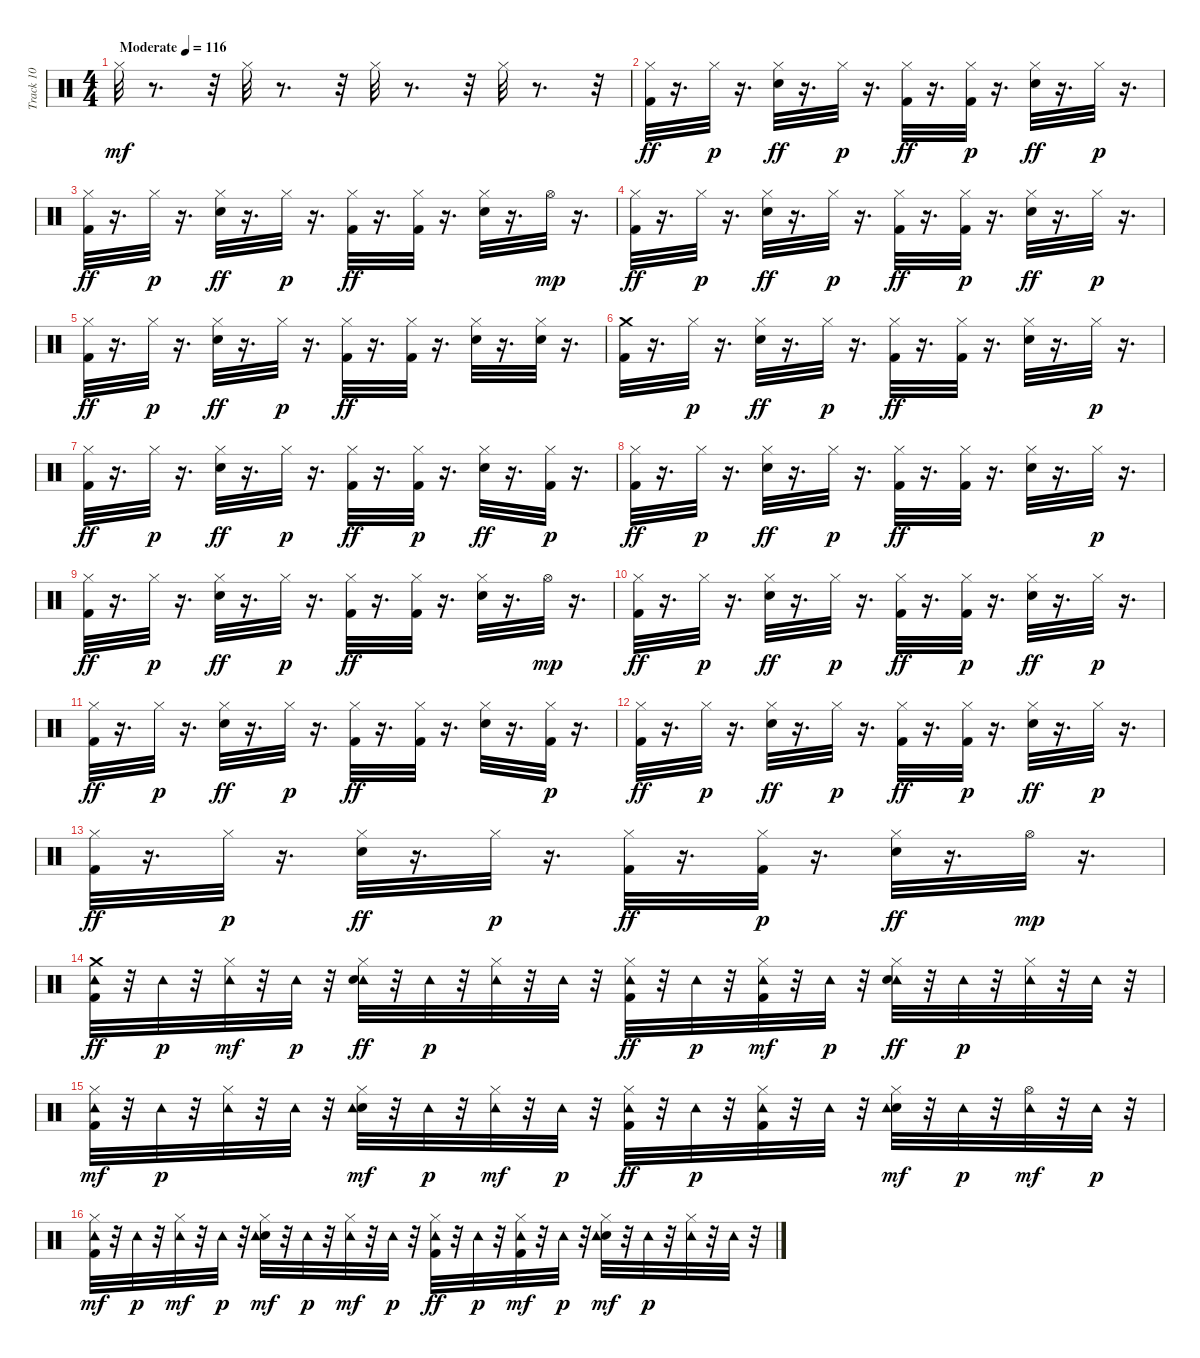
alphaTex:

\track ("Track 10" "Track 10") {instrument percussion}
\staff {score}
\articulation defaults
\ts (4 4)
\tempo (116 "Moderate")
\clef neutral
\ks c "Hi-Hat (closed)".32{dy mf}
r.8{d} r.32 "Hi-Hat (closed)".32 r.8{d} r.32 "Hi-Hat (closed)".32 r.8{d} r.32 "Hi-Hat (closed)".32 r.8{d} r.32 |
("Hi-Hat (closed)" "Kick (hit) 2").32{dy ff} r.16{d} "Hi-Hat (closed)".32{dy p} r.16{d} ("Snare (hit) 2" "Hi-Hat (closed)").32{dy ff} r.16{d} "Hi-Hat (closed)".32{dy p} r.16{d} ("Kick (hit) 2" "Hi-Hat (closed)").32{dy ff} r.16{d} ("Kick (hit) 2" "Hi-Hat (closed)").32{dy p} r.16{d} ("Hi-Hat (closed)" "Snare (hit) 2").32{dy ff} r.16{d} "Hi-Hat (closed)".32{dy p} r.16{d} |
("Hi-Hat (closed)" "Kick (hit) 2").32{dy ff} r.16{d} "Hi-Hat (closed)".32{dy p} r.16{d} ("Snare (hit) 2" "Hi-Hat (closed)").32{dy ff} r.16{d} "Hi-Hat (closed)".32{dy p} r.16{d} ("Hi-Hat (closed)" "Kick (hit) 2").32{dy ff} r.16{d} ("Hi-Hat (closed)" "Kick (hit) 2").32 r.16{d} ("Hi-Hat (closed)" "Snare (hit) 2").32 r.16{d} "Hi-Hat (open)".32{dy mp} r.16{d} |
("Hi-Hat (closed)" "Kick (hit) 2").32{dy ff} r.16{d} "Hi-Hat (closed)".32{dy p} r.16{d} ("Snare (hit) 2" "Hi-Hat (closed)").32{dy ff} r.16{d} "Hi-Hat (closed)".32{dy p} r.16{d} ("Kick (hit) 2" "Hi-Hat (closed)").32{dy ff} r.16{d} ("Kick (hit) 2" "Hi-Hat (closed)").32{dy p} r.16{d} ("Hi-Hat (closed)" "Snare (hit) 2").32{dy ff} r.16{d} "Hi-Hat (closed)".32{dy p} r.16{d} |
("Hi-Hat (closed)" "Kick (hit) 2").32{dy ff} r.16{d} "Hi-Hat (closed)".32{dy p} r.16{d} ("Snare (hit) 2" "Hi-Hat (closed)").32{dy ff} r.16{d} "Hi-Hat (closed)".32{dy p} r.16{d} ("Hi-Hat (closed)" "Kick (hit) 2").32{dy ff} r.16{d} ("Hi-Hat (closed)" "Kick (hit) 2").32 r.16{d} ("Hi-Hat (closed)" "Snare (hit) 2").32 r.16{d} ("Hi-Hat (closed)" "Snare (hit) 2").32 r.16{d} |
("Crash medium (hit)" "Kick (hit) 2").32 r.16{d} "Hi-Hat (closed)".32{dy p} r.16{d} ("Hi-Hat (closed)" "Snare (hit) 2").32{dy ff} r.16{d} "Hi-Hat (closed)".32{dy p} r.16{d} ("Kick (hit) 2" "Hi-Hat (closed)").32{dy ff} r.16{d} ("Hi-Hat (closed)" "Kick (hit) 2").32 r.16{d} ("Hi-Hat (closed)" "Snare (hit) 2").32 r.16{d} "Hi-Hat (closed)".32{dy p} r.16{d} |
("Hi-Hat (closed)" "Kick (hit) 2").32{dy ff} r.16{d} "Hi-Hat (closed)".32{dy p} r.16{d} ("Snare (hit) 2" "Hi-Hat (closed)").32{dy ff} r.16{d} "Hi-Hat (closed)".32{dy p} r.16{d} ("Hi-Hat (closed)" "Kick (hit) 2").32{dy ff} r.16{d} ("Kick (hit) 2" "Hi-Hat (closed)").32{dy p} r.16{d} ("Snare (hit) 2" "Hi-Hat (closed)").32{dy ff} r.16{d} ("Kick (hit) 2" "Hi-Hat (closed)").32{dy p} r.16{d} |
("Hi-Hat (closed)" "Kick (hit) 2").32{dy ff} r.16{d} "Hi-Hat (closed)".32{dy p} r.16{d} ("Hi-Hat (closed)" "Snare (hit) 2").32{dy ff} r.16{d} "Hi-Hat (closed)".32{dy p} r.16{d} ("Kick (hit) 2" "Hi-Hat (closed)").32{dy ff} r.16{d} ("Hi-Hat (closed)" "Kick (hit) 2").32 r.16{d} ("Hi-Hat (closed)" "Snare (hit) 2").32 r.16{d} "Hi-Hat (closed)".32{dy p} r.16{d} |
("Kick (hit) 2" "Hi-Hat (closed)").32{dy ff} r.16{d} "Hi-Hat (closed)".32{dy p} r.16{d} ("Hi-Hat (closed)" "Snare (hit) 2").32{dy ff} r.16{d} "Hi-Hat (closed)".32{dy p} r.16{d} ("Kick (hit) 2" "Hi-Hat (closed)").32{dy ff} r.16{d} ("Hi-Hat (closed)" "Kick (hit) 2").32 r.16{d} ("Snare (hit) 2" "Hi-Hat (closed)").32 r.16{d} "Hi-Hat (open)".32{dy mp} r.16{d} |
("Kick (hit) 2" "Hi-Hat (closed)").32{dy ff} r.16{d} "Hi-Hat (closed)".32{dy p} r.16{d} ("Hi-Hat (closed)" "Snare (hit) 2").32{dy ff} r.16{d} "Hi-Hat (closed)".32{dy p} r.16{d} ("Hi-Hat (closed)" "Kick (hit) 2").32{dy ff} r.16{d} ("Kick (hit) 2" "Hi-Hat (closed)").32{dy p} r.16{d} ("Hi-Hat (closed)" "Snare (hit) 2").32{dy ff} r.16{d} "Hi-Hat (closed)".32{dy p} r.16{d} |
("Hi-Hat (closed)" "Kick (hit) 2").32{dy ff} r.16{d} "Hi-Hat (closed)".32{dy p} r.16{d} ("Hi-Hat (closed)" "Snare (hit) 2").32{dy ff} r.16{d} "Hi-Hat (closed)".32{dy p} r.16{d} ("Kick (hit) 2" "Hi-Hat (closed)").32{dy ff} r.16{d} ("Hi-Hat (closed)" "Kick (hit) 2").32 r.16{d} ("Snare (hit) 2" "Hi-Hat (closed)").32 r.16{d} ("Kick (hit) 2" "Hi-Hat (closed)").32{dy p} r.16{d} |
("Hi-Hat (closed)" "Kick (hit) 2").32{dy ff} r.16{d} "Hi-Hat (closed)".32{dy p} r.16{d} ("Snare (hit) 2" "Hi-Hat (closed)").32{dy ff} r.16{d} "Hi-Hat (closed)".32{dy p} r.16{d} ("Hi-Hat (closed)" "Kick (hit) 2").32{dy ff} r.16{d} ("Kick (hit) 2" "Hi-Hat (closed)").32{dy p} r.16{d} ("Snare (hit) 2" "Hi-Hat (closed)").32{dy ff} r.16{d} "Hi-Hat (closed)".32{dy p} r.16{d} |
("Kick (hit) 2" "Hi-Hat (closed)").32{dy ff} r.16{d} "Hi-Hat (closed)".32{dy p} r.16{d} ("Snare (hit) 2" "Hi-Hat (closed)").32{dy ff} r.16{d} "Hi-Hat (closed)".32{dy p} r.16{d} ("Hi-Hat (closed)" "Kick (hit) 2").32{dy ff} r.16{d} ("Kick (hit) 2" "Hi-Hat (closed)").32{dy p} r.16{d} ("Hi-Hat (closed)" "Snare (hit) 2").32{dy ff} r.16{d} "Hi-Hat (open)".32{dy mp} r.16{d} |
("Tambourine (hit)" "Crash medium (hit)" "Kick (hit) 2").32{dy ff} r.32 "Tambourine (hit)".32{dy p} r.32 ("Hi-Hat (closed)" "Tambourine (hit)").32{dy mf} r.32 "Tambourine (hit)".32{dy p} r.32 ("Tambourine (hit)" "Snare (hit) 2" "Hi-Hat (closed)").32{dy ff} r.32 "Tambourine (hit)".32{dy p} r.32 ("Tambourine (hit)" "Hi-Hat (closed)").32 r.32 "Tambourine (hit)".32 r.32 ("Hi-Hat (closed)" "Tambourine (hit)" "Kick (hit) 2").32{dy ff} r.32 "Tambourine (hit)".32{dy p} r.32 ("Hi-Hat (closed)" "Kick (hit) 2" "Tambourine (hit)").32{dy mf} r.32 "Tambourine (hit)".32{dy p} r.32 ("Hi-Hat (closed)" "Tambourine (hit)" "Snare (hit) 2").32{dy ff} r.32 "Tambourine (hit)".32{dy p} r.32 ("Tambourine (hit)" "Hi-Hat (closed)").32 r.32 "Tambourine (hit)".32 r.32 |
("Hi-Hat (closed)" "Kick (hit) 2" "Tambourine (hit)").32{dy mf} r.32 "Tambourine (hit)".32{dy p} r.32 ("Tambourine (hit)" "Hi-Hat (closed)").32 r.32 "Tambourine (hit)".32 r.32 ("Snare (hit) 2" "Hi-Hat (closed)" "Tambourine (hit)").32{dy mf} r.32 "Tambourine (hit)".32{dy p} r.32 ("Hi-Hat (closed)" "Tambourine (hit)").32{dy mf} r.32 "Tambourine (hit)".32{dy p} r.32 ("Tambourine (hit)" "Kick (hit) 2" "Hi-Hat (closed)").32{dy ff} r.32 "Tambourine (hit)".32{dy p} r.32 ("Tambourine (hit)" "Kick (hit) 2" "Hi-Hat (closed)").32 r.32 "Tambourine (hit)".32 r.32 ("Snare (hit) 2" "Tambourine (hit)" "Hi-Hat (closed)").32{dy mf} r.32 "Tambourine (hit)".32{dy p} r.32 ("Hi-Hat (open)" "Tambourine (hit)").32{dy mf} r.32 "Tambourine (hit)".32{dy p} r.32 |
("Hi-Hat (closed)" "Kick (hit) 2" "Tambourine (hit)").32{dy mf} r.32 "Tambourine (hit)".32{dy p} r.32 ("Hi-Hat (closed)" "Tambourine (hit)").32{dy mf} r.32 "Tambourine (hit)".32{dy p} r.32 ("Snare (hit) 2" "Hi-Hat (closed)" "Tambourine (hit)").32{dy mf} r.32 "Tambourine (hit)".32{dy p} r.32 ("Hi-Hat (closed)" "Tambourine (hit)").32{dy mf} r.32 "Tambourine (hit)".32{dy p} r.32 ("Tambourine (hit)" "Hi-Hat (closed)" "Kick (hit) 2").32{dy ff} r.32 "Tambourine (hit)".32{dy p} r.32 ("Kick (hit) 2" "Hi-Hat (closed)" "Tambourine (hit)").32{dy mf} r.32 "Tambourine (hit)".32{dy p} r.32 ("Hi-Hat (closed)" "Snare (hit) 2" "Tambourine (hit)").32{dy mf} r.32 "Tambourine (hit)".32{dy p} r.32 ("Tambourine (hit)" "Hi-Hat (closed)").32 r.32 "Tambourine (hit)".32 r.32
